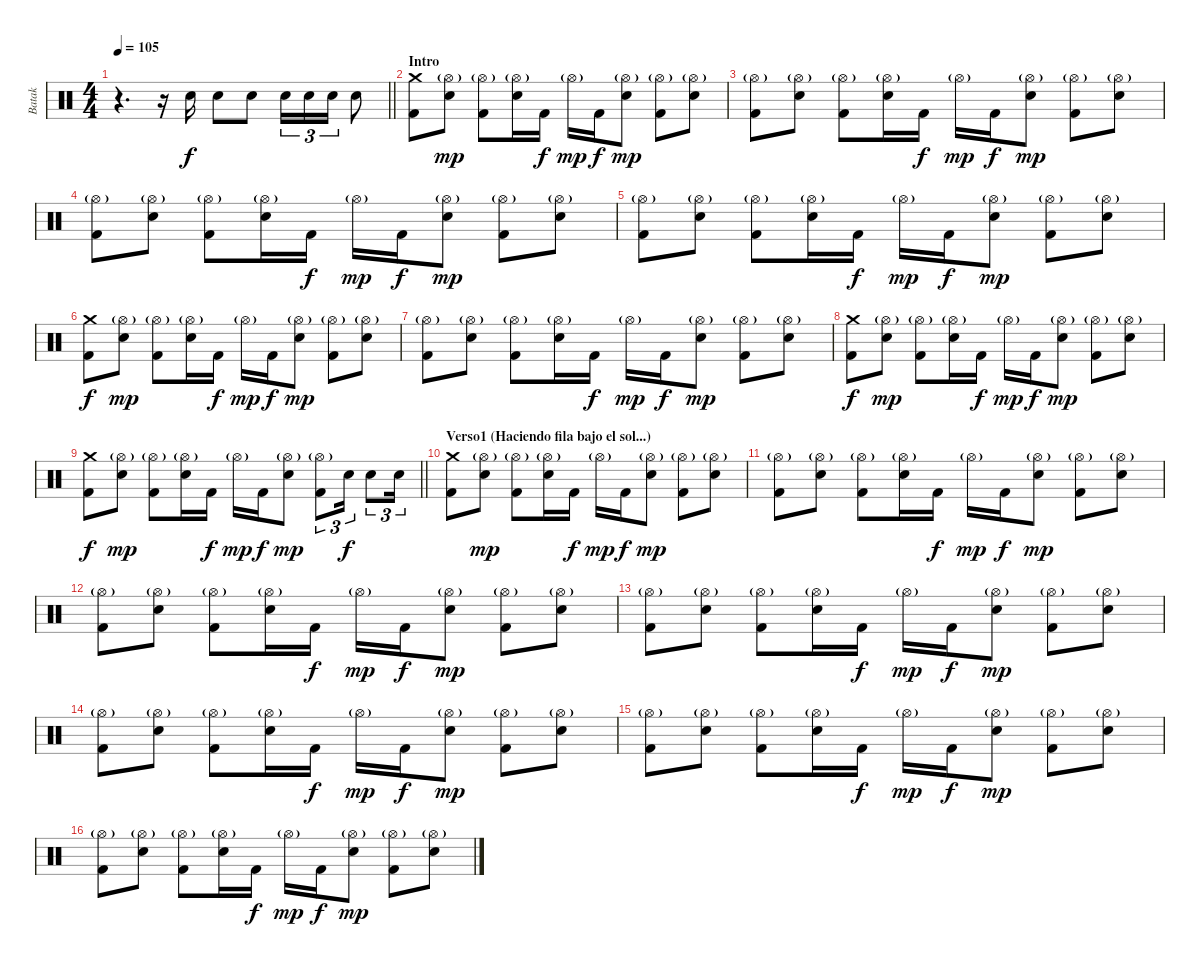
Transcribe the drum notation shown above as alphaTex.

\track ("Batak" "Batak") {instrument percussion bank 7}
\staff {score}
\articulation defaults
\ts (4 4)
\tempo 105
\clef neutral
\barLineRight lightlight
\ks c
r.4{d dy f} r.16 "Electric Snare (hit)".16 "Electric Snare (hit)".8 "Electric Snare (hit)".8 "Electric Snare (hit)".16{tu (3 2)} "Electric Snare (hit)".16{tu (3 2)} "Electric Snare (hit)".16{tu (3 2)} "Electric Snare (hit)".8 |
\section ("" "Intro")
("Crash medium (hit)" "Kick (hit) 2").8 ("Hi-Hat (open)"{g} "Electric Snare (hit)").8{dy mp} ("Hi-Hat (open)"{g} "Kick (hit) 2").8 ("Hi-Hat (open)"{g} "Electric Snare (hit)").16 "Kick (hit) 2".16{dy f} "Hi-Hat (open)"{g}.16{dy mp} "Kick (hit) 2".16{dy f} ("Hi-Hat (open)"{g} "Electric Snare (hit)").8{dy mp} ("Hi-Hat (open)"{g} "Kick (hit) 2").8 ("Hi-Hat (open)"{g} "Electric Snare (hit)").8 |
("Hi-Hat (open)"{g} "Kick (hit) 2").8 ("Hi-Hat (open)"{g} "Electric Snare (hit)").8 ("Hi-Hat (open)"{g} "Kick (hit) 2").8 ("Hi-Hat (open)"{g} "Electric Snare (hit)").16 "Kick (hit) 2".16{dy f} "Hi-Hat (open)"{g}.16{dy mp} "Kick (hit) 2".16{dy f} ("Hi-Hat (open)"{g} "Electric Snare (hit)").8{dy mp} ("Hi-Hat (open)"{g} "Kick (hit) 2").8 ("Hi-Hat (open)"{g} "Electric Snare (hit)").8 |
("Hi-Hat (open)"{g} "Kick (hit) 2").8 ("Hi-Hat (open)"{g} "Electric Snare (hit)").8 ("Hi-Hat (open)"{g} "Kick (hit) 2").8 ("Hi-Hat (open)"{g} "Electric Snare (hit)").16 "Kick (hit) 2".16{dy f} "Hi-Hat (open)"{g}.16{dy mp} "Kick (hit) 2".16{dy f} ("Hi-Hat (open)"{g} "Electric Snare (hit)").8{dy mp} ("Hi-Hat (open)"{g} "Kick (hit) 2").8 ("Hi-Hat (open)"{g} "Electric Snare (hit)").8 |
("Hi-Hat (open)"{g} "Kick (hit) 2").8 ("Hi-Hat (open)"{g} "Electric Snare (hit)").8 ("Hi-Hat (open)"{g} "Kick (hit) 2").8 ("Hi-Hat (open)"{g} "Electric Snare (hit)").16 "Kick (hit) 2".16{dy f} "Hi-Hat (open)"{g}.16{dy mp} "Kick (hit) 2".16{dy f} ("Hi-Hat (open)"{g} "Electric Snare (hit)").8{dy mp} ("Hi-Hat (open)"{g} "Kick (hit) 2").8 ("Hi-Hat (open)"{g} "Electric Snare (hit)").8 |
("Crash medium (hit)" "Kick (hit) 2").8{dy f} ("Hi-Hat (open)"{g} "Electric Snare (hit)").8{dy mp} ("Hi-Hat (open)"{g} "Kick (hit) 2").8 ("Hi-Hat (open)"{g} "Electric Snare (hit)").16 "Kick (hit) 2".16{dy f} "Hi-Hat (open)"{g}.16{dy mp} "Kick (hit) 2".16{dy f} ("Hi-Hat (open)"{g} "Electric Snare (hit)").8{dy mp} ("Hi-Hat (open)"{g} "Kick (hit) 2").8 ("Hi-Hat (open)"{g} "Electric Snare (hit)").8 |
("Hi-Hat (open)"{g} "Kick (hit) 2").8 ("Hi-Hat (open)"{g} "Electric Snare (hit)").8 ("Hi-Hat (open)"{g} "Kick (hit) 2").8 ("Hi-Hat (open)"{g} "Electric Snare (hit)").16 "Kick (hit) 2".16{dy f} "Hi-Hat (open)"{g}.16{dy mp} "Kick (hit) 2".16{dy f} ("Hi-Hat (open)"{g} "Electric Snare (hit)").8{dy mp} ("Hi-Hat (open)"{g} "Kick (hit) 2").8 ("Hi-Hat (open)"{g} "Electric Snare (hit)").8 |
("Crash medium (hit)" "Kick (hit) 2").8{dy f} ("Hi-Hat (open)"{g} "Electric Snare (hit)").8{dy mp} ("Hi-Hat (open)"{g} "Kick (hit) 2").8 ("Hi-Hat (open)"{g} "Electric Snare (hit)").16 "Kick (hit) 2".16{dy f} "Hi-Hat (open)"{g}.16{dy mp} "Kick (hit) 2".16{dy f} ("Hi-Hat (open)"{g} "Electric Snare (hit)").8{dy mp} ("Hi-Hat (open)"{g} "Kick (hit) 2").8 ("Hi-Hat (open)"{g} "Electric Snare (hit)").8 |
\barLineRight lightlight
("Crash medium (hit)" "Kick (hit) 2").8{dy f} ("Hi-Hat (open)"{g} "Electric Snare (hit)").8{dy mp} ("Hi-Hat (open)"{g} "Kick (hit) 2").8 ("Hi-Hat (open)"{g} "Electric Snare (hit)").16 "Kick (hit) 2".16{dy f} "Hi-Hat (open)"{g}.16{dy mp} "Kick (hit) 2".16{dy f} ("Hi-Hat (open)"{g} "Electric Snare (hit)").8{dy mp} ("Hi-Hat (open)"{g} "Kick (hit) 2").8{tu (3 2)} "Electric Snare (hit)".16{tu (3 2) dy f} "Electric Snare (hit)".8{tu (3 2)} "Electric Snare (hit)".16{tu (3 2)} |
\section ("" "Verso1 (Haciendo fila bajo el sol...)")
("Crash medium (hit)" "Kick (hit) 2").8 ("Hi-Hat (open)"{g} "Electric Snare (hit)").8{dy mp} ("Hi-Hat (open)"{g} "Kick (hit) 2").8 ("Hi-Hat (open)"{g} "Electric Snare (hit)").16 "Kick (hit) 2".16{dy f} "Hi-Hat (open)"{g}.16{dy mp} "Kick (hit) 2".16{dy f} ("Hi-Hat (open)"{g} "Electric Snare (hit)").8{dy mp} ("Hi-Hat (open)"{g} "Kick (hit) 2").8 ("Hi-Hat (open)"{g} "Electric Snare (hit)").8 |
("Hi-Hat (open)"{g} "Kick (hit) 2").8 ("Hi-Hat (open)"{g} "Electric Snare (hit)").8 ("Hi-Hat (open)"{g} "Kick (hit) 2").8 ("Hi-Hat (open)"{g} "Electric Snare (hit)").16 "Kick (hit) 2".16{dy f} "Hi-Hat (open)"{g}.16{dy mp} "Kick (hit) 2".16{dy f} ("Hi-Hat (open)"{g} "Electric Snare (hit)").8{dy mp} ("Hi-Hat (open)"{g} "Kick (hit) 2").8 ("Hi-Hat (open)"{g} "Electric Snare (hit)").8 |
("Hi-Hat (open)"{g} "Kick (hit) 2").8 ("Hi-Hat (open)"{g} "Electric Snare (hit)").8 ("Hi-Hat (open)"{g} "Kick (hit) 2").8 ("Hi-Hat (open)"{g} "Electric Snare (hit)").16 "Kick (hit) 2".16{dy f} "Hi-Hat (open)"{g}.16{dy mp} "Kick (hit) 2".16{dy f} ("Hi-Hat (open)"{g} "Electric Snare (hit)").8{dy mp} ("Hi-Hat (open)"{g} "Kick (hit) 2").8 ("Hi-Hat (open)"{g} "Electric Snare (hit)").8 |
("Hi-Hat (open)"{g} "Kick (hit) 2").8 ("Hi-Hat (open)"{g} "Electric Snare (hit)").8 ("Hi-Hat (open)"{g} "Kick (hit) 2").8 ("Hi-Hat (open)"{g} "Electric Snare (hit)").16 "Kick (hit) 2".16{dy f} "Hi-Hat (open)"{g}.16{dy mp} "Kick (hit) 2".16{dy f} ("Hi-Hat (open)"{g} "Electric Snare (hit)").8{dy mp} ("Hi-Hat (open)"{g} "Kick (hit) 2").8 ("Hi-Hat (open)"{g} "Electric Snare (hit)").8 |
("Hi-Hat (open)"{g} "Kick (hit) 2").8 ("Hi-Hat (open)"{g} "Electric Snare (hit)").8 ("Hi-Hat (open)"{g} "Kick (hit) 2").8 ("Hi-Hat (open)"{g} "Electric Snare (hit)").16 "Kick (hit) 2".16{dy f} "Hi-Hat (open)"{g}.16{dy mp} "Kick (hit) 2".16{dy f} ("Hi-Hat (open)"{g} "Electric Snare (hit)").8{dy mp} ("Hi-Hat (open)"{g} "Kick (hit) 2").8 ("Hi-Hat (open)"{g} "Electric Snare (hit)").8 |
("Hi-Hat (open)"{g} "Kick (hit) 2").8 ("Hi-Hat (open)"{g} "Electric Snare (hit)").8 ("Hi-Hat (open)"{g} "Kick (hit) 2").8 ("Hi-Hat (open)"{g} "Electric Snare (hit)").16 "Kick (hit) 2".16{dy f} "Hi-Hat (open)"{g}.16{dy mp} "Kick (hit) 2".16{dy f} ("Hi-Hat (open)"{g} "Electric Snare (hit)").8{dy mp} ("Hi-Hat (open)"{g} "Kick (hit) 2").8 ("Hi-Hat (open)"{g} "Electric Snare (hit)").8 |
("Hi-Hat (open)"{g} "Kick (hit) 2").8 ("Hi-Hat (open)"{g} "Electric Snare (hit)").8 ("Hi-Hat (open)"{g} "Kick (hit) 2").8 ("Hi-Hat (open)"{g} "Electric Snare (hit)").16 "Kick (hit) 2".16{dy f} "Hi-Hat (open)"{g}.16{dy mp} "Kick (hit) 2".16{dy f} ("Hi-Hat (open)"{g} "Electric Snare (hit)").8{dy mp} ("Hi-Hat (open)"{g} "Kick (hit) 2").8 ("Hi-Hat (open)"{g} "Electric Snare (hit)").8
